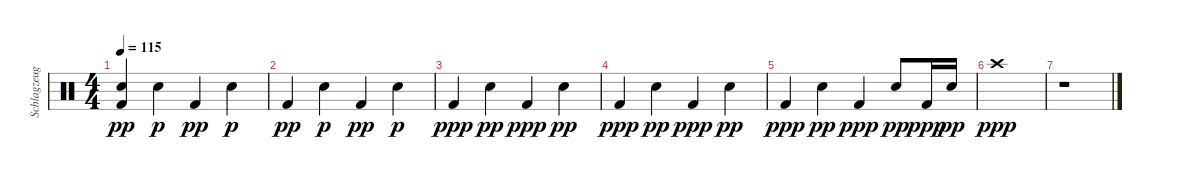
\track ("Schlagzeug" "Schlagzeug") {instrument percussion}
\staff {score}
\articulation defaults
\ts (4 4)
\tempo 115
\clef neutral
\ks c
("Snare (hit)"{t} "Kick (hit) 2").4{dy pp} "Electric Snare (hit)".4{dy p} "Kick (hit) 2".4{dy pp} "Electric Snare (hit)".4{dy p} |
"Kick (hit) 2".4{dy pp} "Electric Snare (hit)".4{dy p} "Kick (hit) 2".4{dy pp} "Electric Snare (hit)".4{dy p} |
"Kick (hit) 2".4{dy ppp} "Electric Snare (hit)".4{dy pp} "Kick (hit) 2".4{dy ppp} "Electric Snare (hit)".4{dy pp} |
"Kick (hit) 2".4{dy ppp} "Electric Snare (hit)".4{dy pp} "Kick (hit) 2".4{dy ppp} "Electric Snare (hit)".4{dy pp} |
"Kick (hit) 2".4{dy ppp} "Electric Snare (hit)".4{dy pp} "Kick (hit) 2".4{dy ppp} "Electric Snare (hit)".8{dy pp} "Kick (hit) 2".16{dy ppp} "Electric Snare (hit)".16{dy pp} |
"Crash high (hit)".1{dy ppp} |
r.1
